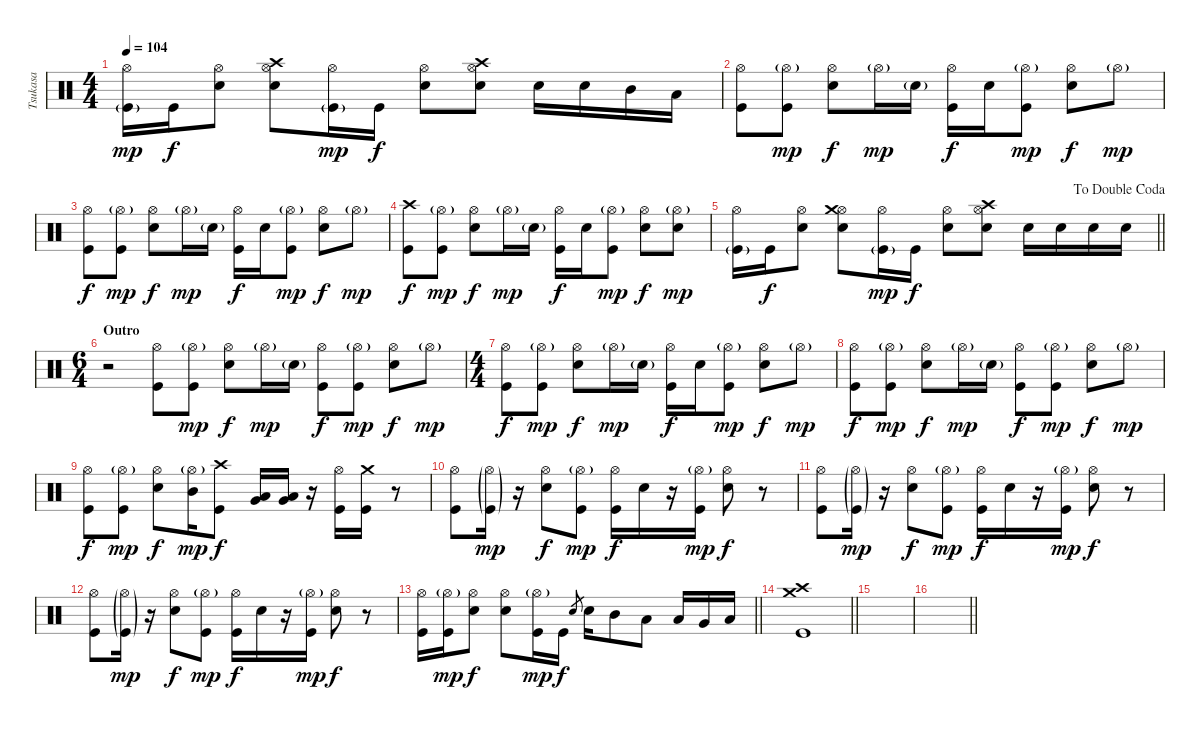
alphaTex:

\track ("Tsukasa" "Tsukasa") {instrument percussion}
\staff {score}
\articulation defaults
\ts (4 4)
\tempo 104
\clef neutral
\ks aminor
("Hi-Hat (open)" "Kick (hit)"{g}).16{dy mp} "Kick (hit)".16{dy f} ("Hi-Hat (open)" "Snare (hit) 2").8 ("Hi-Hat (open)" "Crash high (hit)" "Snare (hit) 2").8 ("Hi-Hat (open)" "Kick (hit)"{g}).16{dy mp} "Kick (hit)".16{dy f} ("Hi-Hat (open)" "Snare (hit) 2").8 ("Hi-Hat (open)" "Crash high (hit)" "Snare (hit) 2").8 "Snare (hit) 2".16 "Snare (hit) 2".16 "Mid Tom (hit)".16 "Low Tom (hit)".16 |
("Hi-Hat (open)" "Kick (hit)").8 ("Hi-Hat (open)"{g} "Kick (hit)").8{dy mp} ("Hi-Hat (open)" "Snare (hit) 2").8{dy f} "Hi-Hat (open)"{g}.16{dy mp} "Snare (hit) 2"{g}.16 ("Hi-Hat (open)" "Kick (hit)").16{dy f} "Snare (hit) 2".16 ("Hi-Hat (open)"{g} "Kick (hit)").8{dy mp} ("Hi-Hat (open)" "Snare (hit) 2").8{dy f} "Hi-Hat (open)"{g}.8{dy mp} |
("Hi-Hat (open)" "Kick (hit)").8{dy f} ("Hi-Hat (open)"{g} "Kick (hit)").8{dy mp} ("Hi-Hat (open)" "Snare (hit) 2").8{dy f} "Hi-Hat (open)"{g}.16{dy mp} "Snare (hit) 2"{g}.16 ("Hi-Hat (open)" "Kick (hit)").16{dy f} "Snare (hit) 2".16 ("Hi-Hat (open)"{g} "Kick (hit)").8{dy mp} ("Hi-Hat (open)" "Snare (hit) 2").8{dy f} "Hi-Hat (open)"{g}.8{dy mp} |
("Crash high (hit)" "Kick (hit)").8{dy f} ("Hi-Hat (open)"{g} "Kick (hit)").8{dy mp} ("Hi-Hat (open)" "Snare (hit) 2").8{dy f} "Hi-Hat (open)"{g}.16{dy mp} "Snare (hit) 2"{g}.16 ("Hi-Hat (open)" "Kick (hit)").16{dy f} "Snare (hit) 2".16 ("Hi-Hat (open)"{g} "Kick (hit)").8{dy mp} ("Hi-Hat (open)" "Snare (hit) 2").8{dy f} ("Hi-Hat (open)"{g} "Snare (hit) 2").8{dy mp} |
\jump dadoublecoda
\barLineRight lightlight
("Hi-Hat (open)" "Kick (hit)"{g}).16 "Kick (hit)".16{dy f} ("Hi-Hat (open)" "Snare (hit) 2").8 ("Hi-Hat (open)" "Crash medium (hit)" "Snare (hit) 2").8 ("Hi-Hat (open)" "Kick (hit)"{g}).16{dy mp} "Kick (hit)".16{dy f} ("Hi-Hat (open)" "Snare (hit) 2").8 ("Hi-Hat (open)" "Crash high (hit)" "Snare (hit) 2").8 "Snare (hit) 2".16 "Snare (hit) 2".16 "Snare (hit) 2".16 "Snare (hit) 2".16 |
\ts (6 4)
\section ("" "Outro")
r.2 ("Hi-Hat (open)" "Kick (hit)").8 ("Hi-Hat (open)"{g} "Kick (hit)").8{dy mp} ("Hi-Hat (open)" "Snare (hit) 2").8{dy f} "Hi-Hat (open)"{g}.16{dy mp} "Snare (hit) 2"{g}.16 ("Hi-Hat (open)" "Kick (hit)").8{dy f} ("Hi-Hat (open)"{g} "Kick (hit)").8{dy mp} ("Hi-Hat (open)" "Snare (hit) 2").8{dy f} "Hi-Hat (open)"{g}.8{dy mp} |
\ts (4 4)
\ks c
("Hi-Hat (open)" "Kick (hit)").8{dy f} ("Hi-Hat (open)"{g} "Kick (hit)").8{dy mp} ("Hi-Hat (open)" "Snare (hit) 2").8{dy f} "Hi-Hat (open)"{g}.16{dy mp} "Snare (hit) 2"{g}.16 ("Hi-Hat (open)" "Kick (hit)").16{dy f} "Snare (hit) 2".16 ("Hi-Hat (open)"{g} "Kick (hit)").8{dy mp} ("Hi-Hat (open)" "Snare (hit) 2").8{dy f} "Hi-Hat (open)"{g}.8{dy mp} |
("Hi-Hat (open)" "Kick (hit)").8{dy f} ("Hi-Hat (open)"{g} "Kick (hit)").8{dy mp} ("Hi-Hat (open)" "Snare (hit) 2").8{dy f} "Hi-Hat (open)"{g}.16{dy mp} "Snare (hit) 2"{g}.16 ("Hi-Hat (open)" "Kick (hit)").8{dy f} ("Hi-Hat (open)"{g} "Kick (hit)").8{dy mp} ("Hi-Hat (open)" "Snare (hit) 2").8{dy f} "Hi-Hat (open)"{g}.8{dy mp} |
("Hi-Hat (open)" "Kick (hit)").8{dy f} ("Hi-Hat (open)"{g} "Kick (hit)").8{dy mp} ("Hi-Hat (open)" "Snare (hit) 2").8{dy f} ("Hi-Hat (open)"{g} "Mid Tom (hit)").16{dy mp} ("Crash high (hit)" "Kick (hit)").8{dy f} ("Very Low Tom (hit)" "Low Tom (hit)").16 ("Low Tom (hit)" "Very Low Tom (hit)").16 r.16 ("Hi-Hat (open)" "Kick (hit)").16 ("Crash medium (hit)" "Kick (hit)").16 r.8 |
("Hi-Hat (open)" "Kick (hit)").8 ("Hi-Hat (open)"{g} "Kick (hit)"{g}).16{dy mp} r.16 ("Hi-Hat (open)" "Snare (hit) 2").8{dy f} ("Hi-Hat (open)"{g} "Kick (hit)").8{dy mp} ("Hi-Hat (open)" "Kick (hit)").16{dy f} "Snare (hit) 2".16 r.16 ("Hi-Hat (open)"{g} "Kick (hit)").16{dy mp} ("Hi-Hat (open)" "Snare (hit) 2").8{dy f} r.8 |
("Hi-Hat (open)" "Kick (hit)").8 ("Hi-Hat (open)"{g} "Kick (hit)"{g}).16{dy mp} r.16 ("Hi-Hat (open)" "Snare (hit) 2").8{dy f} ("Hi-Hat (open)"{g} "Kick (hit)").8{dy mp} ("Hi-Hat (open)" "Kick (hit)").16{dy f} "Snare (hit) 2".16 r.16 ("Hi-Hat (open)"{g} "Kick (hit)").16{dy mp} ("Hi-Hat (open)" "Snare (hit) 2").8{dy f} r.8 |
("Hi-Hat (open)" "Kick (hit)").8 ("Hi-Hat (open)"{g} "Kick (hit)"{g}).16{dy mp} r.16 ("Hi-Hat (open)" "Snare (hit) 2").8{dy f} ("Hi-Hat (open)"{g} "Kick (hit)").8{dy mp} ("Hi-Hat (open)" "Kick (hit)").16{dy f} "Snare (hit) 2".16 r.16 ("Hi-Hat (open)"{g} "Kick (hit)").16{dy mp} ("Hi-Hat (open)" "Snare (hit) 2").8{dy f} r.8 |
\barLineRight lightlight
("Hi-Hat (open)" "Kick (hit)").16 ("Hi-Hat (open)"{g} "Kick (hit)").16{dy mp} ("Hi-Hat (open)" "Snare (hit) 2").8{dy f} ("Hi-Hat (open)" "Snare (hit) 2").8 ("Hi-Hat (open)"{g} "Kick (hit)").16{dy mp} "Kick (hit)".16{dy f} "Snare (hit) 2".8{gr} "Snare (hit) 2".16 "Mid Tom (hit)".8 "Low Tom (hit)".8 "Low Tom (hit)".16 "Very Low Tom (hit)".16 "Low Floor Tom (hit)".16 |
\barLineRight lightlight
("Crash high (hit)" "Crash medium (hit)" "Kick (hit)").1 |
\ks aminor
|
\barLineRight lightlight
\ks c
